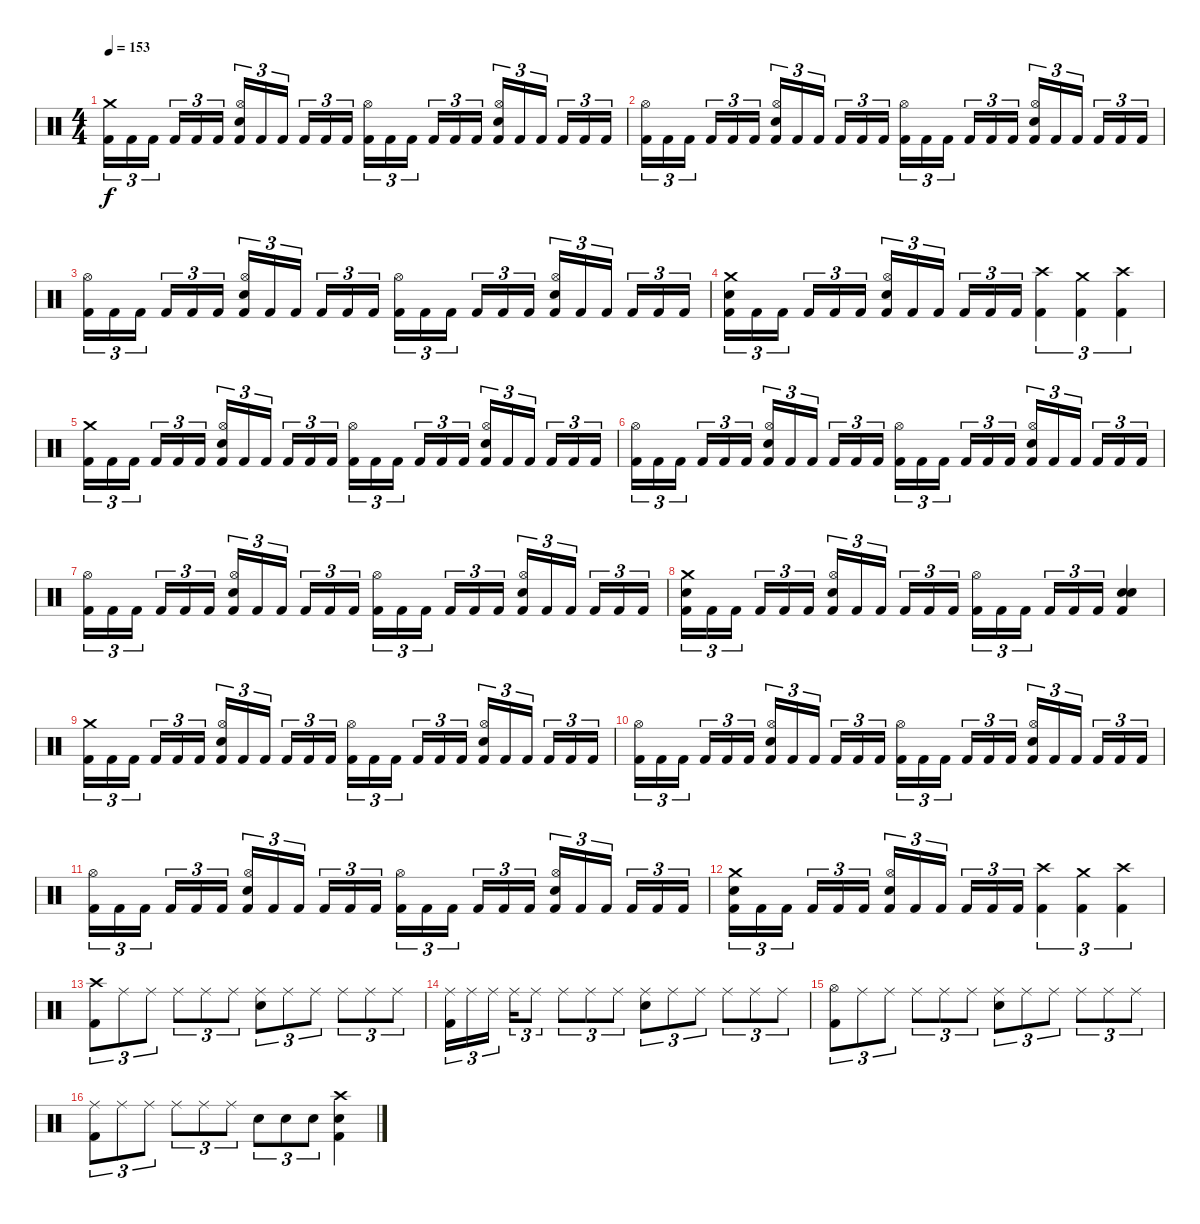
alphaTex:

\track "" {instrument percussion}
\staff {score}
\articulation defaults
\ts (4 4)
\tempo 153
\clef neutral
\ks c
("Crash medium (hit)" "Kick (hit) 2").16{tu (3 2) dy f} "Kick (hit) 2".16{tu (3 2)} "Kick (hit) 2".16{tu (3 2)} "Kick (hit) 2".16{tu (3 2)} "Kick (hit) 2".16{tu (3 2)} "Kick (hit) 2".16{tu (3 2)} ("Hi-Hat (open)" "Electric Snare (hit)" "Kick (hit) 2").16{tu (3 2)} "Kick (hit) 2".16{tu (3 2)} "Kick (hit) 2".16{tu (3 2)} "Kick (hit) 2".16{tu (3 2)} "Kick (hit) 2".16{tu (3 2)} "Kick (hit) 2".16{tu (3 2)} ("Hi-Hat (open)" "Kick (hit) 2").16{tu (3 2)} "Kick (hit) 2".16{tu (3 2)} "Kick (hit) 2".16{tu (3 2)} "Kick (hit) 2".16{tu (3 2)} "Kick (hit) 2".16{tu (3 2)} "Kick (hit) 2".16{tu (3 2)} ("Hi-Hat (open)" "Electric Snare (hit)" "Kick (hit) 2").16{tu (3 2)} "Kick (hit) 2".16{tu (3 2)} "Kick (hit) 2".16{tu (3 2)} "Kick (hit) 2".16{tu (3 2)} "Kick (hit) 2".16{tu (3 2)} "Kick (hit) 2".16{tu (3 2)} |
("Hi-Hat (open)" "Kick (hit) 2").16{tu (3 2)} "Kick (hit) 2".16{tu (3 2)} "Kick (hit) 2".16{tu (3 2)} "Kick (hit) 2".16{tu (3 2)} "Kick (hit) 2".16{tu (3 2)} "Kick (hit) 2".16{tu (3 2)} ("Hi-Hat (open)" "Electric Snare (hit)" "Kick (hit) 2").16{tu (3 2)} "Kick (hit) 2".16{tu (3 2)} "Kick (hit) 2".16{tu (3 2)} "Kick (hit) 2".16{tu (3 2)} "Kick (hit) 2".16{tu (3 2)} "Kick (hit) 2".16{tu (3 2)} ("Hi-Hat (open)" "Kick (hit) 2").16{tu (3 2)} "Kick (hit) 2".16{tu (3 2)} "Kick (hit) 2".16{tu (3 2)} "Kick (hit) 2".16{tu (3 2)} "Kick (hit) 2".16{tu (3 2)} "Kick (hit) 2".16{tu (3 2)} ("Hi-Hat (open)" "Electric Snare (hit)" "Kick (hit) 2").16{tu (3 2)} "Kick (hit) 2".16{tu (3 2)} "Kick (hit) 2".16{tu (3 2)} "Kick (hit) 2".16{tu (3 2)} "Kick (hit) 2".16{tu (3 2)} "Kick (hit) 2".16{tu (3 2)} |
("Hi-Hat (open)" "Kick (hit) 2").16{tu (3 2)} "Kick (hit) 2".16{tu (3 2)} "Kick (hit) 2".16{tu (3 2)} "Kick (hit) 2".16{tu (3 2)} "Kick (hit) 2".16{tu (3 2)} "Kick (hit) 2".16{tu (3 2)} ("Hi-Hat (open)" "Electric Snare (hit)" "Kick (hit) 2").16{tu (3 2)} "Kick (hit) 2".16{tu (3 2)} "Kick (hit) 2".16{tu (3 2)} "Kick (hit) 2".16{tu (3 2)} "Kick (hit) 2".16{tu (3 2)} "Kick (hit) 2".16{tu (3 2)} ("Hi-Hat (open)" "Kick (hit) 2").16{tu (3 2)} "Kick (hit) 2".16{tu (3 2)} "Kick (hit) 2".16{tu (3 2)} "Kick (hit) 2".16{tu (3 2)} "Kick (hit) 2".16{tu (3 2)} "Kick (hit) 2".16{tu (3 2)} ("Hi-Hat (open)" "Electric Snare (hit)" "Kick (hit) 2").16{tu (3 2)} "Kick (hit) 2".16{tu (3 2)} "Kick (hit) 2".16{tu (3 2)} "Kick (hit) 2".16{tu (3 2)} "Kick (hit) 2".16{tu (3 2)} "Kick (hit) 2".16{tu (3 2)} |
("Crash medium (hit)" "Electric Snare (hit)" "Kick (hit) 2").16{tu (3 2)} "Kick (hit) 2".16{tu (3 2)} "Kick (hit) 2".16{tu (3 2)} "Kick (hit) 2".16{tu (3 2)} "Kick (hit) 2".16{tu (3 2)} "Kick (hit) 2".16{tu (3 2)} ("Hi-Hat (open)" "Electric Snare (hit)" "Kick (hit) 2").16{tu (3 2)} "Kick (hit) 2".16{tu (3 2)} "Kick (hit) 2".16{tu (3 2)} "Kick (hit) 2".16{tu (3 2)} "Kick (hit) 2".16{tu (3 2)} "Kick (hit) 2".16{tu (3 2)} ("Crash high (hit)" "Kick (hit) 2").4{tu (3 2)} ("Crash medium (hit)" "Kick (hit) 2").4{tu (3 2)} ("Crash high (hit)" "Kick (hit) 2").4{tu (3 2)} |
("Crash medium (hit)" "Kick (hit) 2").16{tu (3 2)} "Kick (hit) 2".16{tu (3 2)} "Kick (hit) 2".16{tu (3 2)} "Kick (hit) 2".16{tu (3 2)} "Kick (hit) 2".16{tu (3 2)} "Kick (hit) 2".16{tu (3 2)} ("Hi-Hat (open)" "Electric Snare (hit)" "Kick (hit) 2").16{tu (3 2)} "Kick (hit) 2".16{tu (3 2)} "Kick (hit) 2".16{tu (3 2)} "Kick (hit) 2".16{tu (3 2)} "Kick (hit) 2".16{tu (3 2)} "Kick (hit) 2".16{tu (3 2)} ("Hi-Hat (open)" "Kick (hit) 2").16{tu (3 2)} "Kick (hit) 2".16{tu (3 2)} "Kick (hit) 2".16{tu (3 2)} "Kick (hit) 2".16{tu (3 2)} "Kick (hit) 2".16{tu (3 2)} "Kick (hit) 2".16{tu (3 2)} ("Hi-Hat (open)" "Electric Snare (hit)" "Kick (hit) 2").16{tu (3 2)} "Kick (hit) 2".16{tu (3 2)} "Kick (hit) 2".16{tu (3 2)} "Kick (hit) 2".16{tu (3 2)} "Kick (hit) 2".16{tu (3 2)} "Kick (hit) 2".16{tu (3 2)} |
("Hi-Hat (open)" "Kick (hit) 2").16{tu (3 2)} "Kick (hit) 2".16{tu (3 2)} "Kick (hit) 2".16{tu (3 2)} "Kick (hit) 2".16{tu (3 2)} "Kick (hit) 2".16{tu (3 2)} "Kick (hit) 2".16{tu (3 2)} ("Hi-Hat (open)" "Electric Snare (hit)" "Kick (hit) 2").16{tu (3 2)} "Kick (hit) 2".16{tu (3 2)} "Kick (hit) 2".16{tu (3 2)} "Kick (hit) 2".16{tu (3 2)} "Kick (hit) 2".16{tu (3 2)} "Kick (hit) 2".16{tu (3 2)} ("Hi-Hat (open)" "Kick (hit) 2").16{tu (3 2)} "Kick (hit) 2".16{tu (3 2)} "Kick (hit) 2".16{tu (3 2)} "Kick (hit) 2".16{tu (3 2)} "Kick (hit) 2".16{tu (3 2)} "Kick (hit) 2".16{tu (3 2)} ("Hi-Hat (open)" "Electric Snare (hit)" "Kick (hit) 2").16{tu (3 2)} "Kick (hit) 2".16{tu (3 2)} "Kick (hit) 2".16{tu (3 2)} "Kick (hit) 2".16{tu (3 2)} "Kick (hit) 2".16{tu (3 2)} "Kick (hit) 2".16{tu (3 2)} |
("Hi-Hat (open)" "Kick (hit) 2").16{tu (3 2)} "Kick (hit) 2".16{tu (3 2)} "Kick (hit) 2".16{tu (3 2)} "Kick (hit) 2".16{tu (3 2)} "Kick (hit) 2".16{tu (3 2)} "Kick (hit) 2".16{tu (3 2)} ("Hi-Hat (open)" "Electric Snare (hit)" "Kick (hit) 2").16{tu (3 2)} "Kick (hit) 2".16{tu (3 2)} "Kick (hit) 2".16{tu (3 2)} "Kick (hit) 2".16{tu (3 2)} "Kick (hit) 2".16{tu (3 2)} "Kick (hit) 2".16{tu (3 2)} ("Hi-Hat (open)" "Kick (hit) 2").16{tu (3 2)} "Kick (hit) 2".16{tu (3 2)} "Kick (hit) 2".16{tu (3 2)} "Kick (hit) 2".16{tu (3 2)} "Kick (hit) 2".16{tu (3 2)} "Kick (hit) 2".16{tu (3 2)} ("Hi-Hat (open)" "Electric Snare (hit)" "Kick (hit) 2").16{tu (3 2)} "Kick (hit) 2".16{tu (3 2)} "Kick (hit) 2".16{tu (3 2)} "Kick (hit) 2".16{tu (3 2)} "Kick (hit) 2".16{tu (3 2)} "Kick (hit) 2".16{tu (3 2)} |
("Crash medium (hit)" "Electric Snare (hit)" "Kick (hit) 2").16{tu (3 2)} "Kick (hit) 2".16{tu (3 2)} "Kick (hit) 2".16{tu (3 2)} "Kick (hit) 2".16{tu (3 2)} "Kick (hit) 2".16{tu (3 2)} "Kick (hit) 2".16{tu (3 2)} ("Hi-Hat (open)" "Electric Snare (hit)" "Kick (hit) 2").16{tu (3 2)} "Kick (hit) 2".16{tu (3 2)} "Kick (hit) 2".16{tu (3 2)} "Kick (hit) 2".16{tu (3 2)} "Kick (hit) 2".16{tu (3 2)} "Kick (hit) 2".16{tu (3 2)} ("Hi-Hat (open)" "Kick (hit) 2").16{tu (3 2)} "Kick (hit) 2".16{tu (3 2)} "Kick (hit) 2".16{tu (3 2)} "Kick (hit) 2".16{tu (3 2)} "Kick (hit) 2".16{tu (3 2)} "Kick (hit) 2".16{tu (3 2)} ("Electric Snare (hit)" "Electric Snare (hit)" "Kick (hit) 2").4 |
("Crash medium (hit)" "Kick (hit) 2").16{tu (3 2)} "Kick (hit) 2".16{tu (3 2)} "Kick (hit) 2".16{tu (3 2)} "Kick (hit) 2".16{tu (3 2)} "Kick (hit) 2".16{tu (3 2)} "Kick (hit) 2".16{tu (3 2)} ("Hi-Hat (open)" "Electric Snare (hit)" "Kick (hit) 2").16{tu (3 2)} "Kick (hit) 2".16{tu (3 2)} "Kick (hit) 2".16{tu (3 2)} "Kick (hit) 2".16{tu (3 2)} "Kick (hit) 2".16{tu (3 2)} "Kick (hit) 2".16{tu (3 2)} ("Hi-Hat (open)" "Kick (hit) 2").16{tu (3 2)} "Kick (hit) 2".16{tu (3 2)} "Kick (hit) 2".16{tu (3 2)} "Kick (hit) 2".16{tu (3 2)} "Kick (hit) 2".16{tu (3 2)} "Kick (hit) 2".16{tu (3 2)} ("Hi-Hat (open)" "Electric Snare (hit)" "Kick (hit) 2").16{tu (3 2)} "Kick (hit) 2".16{tu (3 2)} "Kick (hit) 2".16{tu (3 2)} "Kick (hit) 2".16{tu (3 2)} "Kick (hit) 2".16{tu (3 2)} "Kick (hit) 2".16{tu (3 2)} |
("Hi-Hat (open)" "Kick (hit) 2").16{tu (3 2)} "Kick (hit) 2".16{tu (3 2)} "Kick (hit) 2".16{tu (3 2)} "Kick (hit) 2".16{tu (3 2)} "Kick (hit) 2".16{tu (3 2)} "Kick (hit) 2".16{tu (3 2)} ("Hi-Hat (open)" "Electric Snare (hit)" "Kick (hit) 2").16{tu (3 2)} "Kick (hit) 2".16{tu (3 2)} "Kick (hit) 2".16{tu (3 2)} "Kick (hit) 2".16{tu (3 2)} "Kick (hit) 2".16{tu (3 2)} "Kick (hit) 2".16{tu (3 2)} ("Hi-Hat (open)" "Kick (hit) 2").16{tu (3 2)} "Kick (hit) 2".16{tu (3 2)} "Kick (hit) 2".16{tu (3 2)} "Kick (hit) 2".16{tu (3 2)} "Kick (hit) 2".16{tu (3 2)} "Kick (hit) 2".16{tu (3 2)} ("Hi-Hat (open)" "Electric Snare (hit)" "Kick (hit) 2").16{tu (3 2)} "Kick (hit) 2".16{tu (3 2)} "Kick (hit) 2".16{tu (3 2)} "Kick (hit) 2".16{tu (3 2)} "Kick (hit) 2".16{tu (3 2)} "Kick (hit) 2".16{tu (3 2)} |
("Hi-Hat (open)" "Kick (hit) 2").16{tu (3 2)} "Kick (hit) 2".16{tu (3 2)} "Kick (hit) 2".16{tu (3 2)} "Kick (hit) 2".16{tu (3 2)} "Kick (hit) 2".16{tu (3 2)} "Kick (hit) 2".16{tu (3 2)} ("Hi-Hat (open)" "Electric Snare (hit)" "Kick (hit) 2").16{tu (3 2)} "Kick (hit) 2".16{tu (3 2)} "Kick (hit) 2".16{tu (3 2)} "Kick (hit) 2".16{tu (3 2)} "Kick (hit) 2".16{tu (3 2)} "Kick (hit) 2".16{tu (3 2)} ("Hi-Hat (open)" "Kick (hit) 2").16{tu (3 2)} "Kick (hit) 2".16{tu (3 2)} "Kick (hit) 2".16{tu (3 2)} "Kick (hit) 2".16{tu (3 2)} "Kick (hit) 2".16{tu (3 2)} "Kick (hit) 2".16{tu (3 2)} ("Hi-Hat (open)" "Electric Snare (hit)" "Kick (hit) 2").16{tu (3 2)} "Kick (hit) 2".16{tu (3 2)} "Kick (hit) 2".16{tu (3 2)} "Kick (hit) 2".16{tu (3 2)} "Kick (hit) 2".16{tu (3 2)} "Kick (hit) 2".16{tu (3 2)} |
("Crash medium (hit)" "Electric Snare (hit)" "Kick (hit) 2").16{tu (3 2)} "Kick (hit) 2".16{tu (3 2)} "Kick (hit) 2".16{tu (3 2)} "Kick (hit) 2".16{tu (3 2)} "Kick (hit) 2".16{tu (3 2)} "Kick (hit) 2".16{tu (3 2)} ("Hi-Hat (open)" "Electric Snare (hit)" "Kick (hit) 2").16{tu (3 2)} "Kick (hit) 2".16{tu (3 2)} "Kick (hit) 2".16{tu (3 2)} "Kick (hit) 2".16{tu (3 2)} "Kick (hit) 2".16{tu (3 2)} "Kick (hit) 2".16{tu (3 2)} ("Crash high (hit)" "Kick (hit) 2").4{tu (3 2)} ("Crash medium (hit)" "Kick (hit) 2").4{tu (3 2)} ("Crash high (hit)" "Kick (hit) 2").4{tu (3 2)} |
\section ("" "")
("Crash high (hit)" "Kick (hit) 2").8{tu (3 2)} "Ride (middle)".8{tu (3 2)} "Ride (middle)".8{tu (3 2)} "Ride (middle)".8{tu (3 2)} "Ride (middle)".8{tu (3 2)} "Ride (middle)".8{tu (3 2)} ("Ride (middle)" "Electric Snare (hit)").8{tu (3 2)} "Ride (middle)".8{tu (3 2)} "Ride (middle)".8{tu (3 2)} "Ride (middle)".8{tu (3 2)} "Ride (middle)".8{tu (3 2)} "Ride (middle)".8{tu (3 2)} |
("Ride (middle)" "Kick (hit) 2").16{tu (3 2)} "Ride (middle)".16{tu (3 2)} "Ride (middle)".16{tu (3 2)} "Ride (middle)".16{tu (3 2)} "Ride (middle)".8{tu (3 2)} "Ride (middle)".8{tu (3 2)} "Ride (middle)".8{tu (3 2)} "Ride (middle)".8{tu (3 2)} ("Ride (middle)" "Electric Snare (hit)").8{tu (3 2)} "Ride (middle)".8{tu (3 2)} "Ride (middle)".8{tu (3 2)} "Ride (middle)".8{tu (3 2)} "Ride (middle)".8{tu (3 2)} "Ride (middle)".8{tu (3 2)} |
("Hi-Hat (open)" "Kick (hit) 2").8{tu (3 2)} "Ride (middle)".8{tu (3 2)} "Ride (middle)".8{tu (3 2)} "Ride (middle)".8{tu (3 2)} "Ride (middle)".8{tu (3 2)} "Ride (middle)".8{tu (3 2)} ("Ride (middle)" "Electric Snare (hit)").8{tu (3 2)} "Ride (middle)".8{tu (3 2)} "Ride (middle)".8{tu (3 2)} "Ride (middle)".8{tu (3 2)} "Ride (middle)".8{tu (3 2)} "Ride (middle)".8{tu (3 2)} |
("Ride (middle)" "Kick (hit) 2").8{tu (3 2)} "Ride (middle)".8{tu (3 2)} "Ride (middle)".8{tu (3 2)} "Ride (middle)".8{tu (3 2)} "Ride (middle)".8{tu (3 2)} "Ride (middle)".8{tu (3 2)} "Electric Snare (hit)".8{tu (3 2)} "Electric Snare (hit)".8{tu (3 2)} "Electric Snare (hit)".8{tu (3 2)} ("Crash high (hit)" "Electric Snare (hit)" "Kick (hit) 2").4
